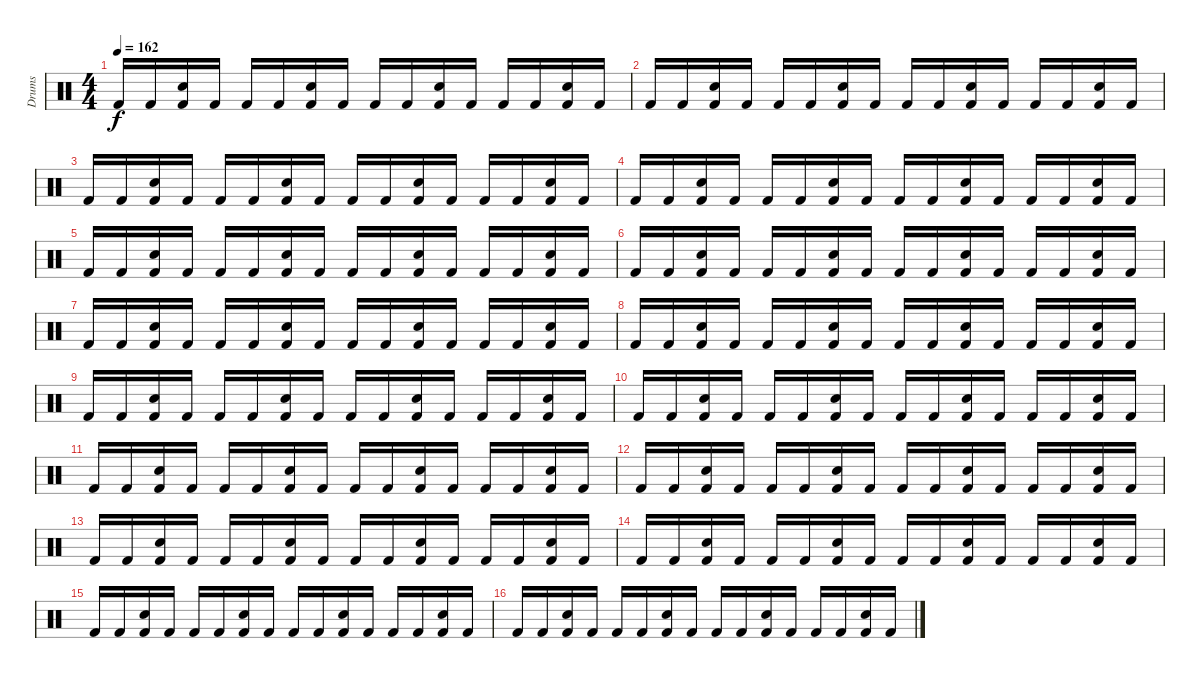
\track ("Drums" "Drums") {instrument percussion}
\staff {score}
\articulation defaults
\ts (4 4)
\tempo 162
\clef neutral
\ks c "Kick (hit) 2".16{dy f} "Kick (hit) 2".16
("Electric Snare (hit)" "Kick (hit) 2").16 "Kick (hit) 2".16 "Kick (hit) 2".16 "Kick (hit) 2".16 ("Electric Snare (hit)" "Kick (hit) 2").16 "Kick (hit) 2".16 "Kick (hit) 2".16 "Kick (hit) 2".16 ("Electric Snare (hit)" "Kick (hit) 2").16 "Kick (hit) 2".16 "Kick (hit) 2".16 "Kick (hit) 2".16 ("Electric Snare (hit)" "Kick (hit) 2").16 "Kick (hit) 2".16 |
"Kick (hit) 2".16 "Kick (hit) 2".16 ("Electric Snare (hit)" "Kick (hit) 2").16 "Kick (hit) 2".16 "Kick (hit) 2".16 "Kick (hit) 2".16 ("Electric Snare (hit)" "Kick (hit) 2").16 "Kick (hit) 2".16 "Kick (hit) 2".16 "Kick (hit) 2".16 ("Electric Snare (hit)" "Kick (hit) 2").16 "Kick (hit) 2".16 "Kick (hit) 2".16 "Kick (hit) 2".16 ("Electric Snare (hit)" "Kick (hit) 2").16 "Kick (hit) 2".16 |
"Kick (hit) 2".16 "Kick (hit) 2".16 ("Electric Snare (hit)" "Kick (hit) 2").16 "Kick (hit) 2".16 "Kick (hit) 2".16 "Kick (hit) 2".16 ("Electric Snare (hit)" "Kick (hit) 2").16 "Kick (hit) 2".16 "Kick (hit) 2".16 "Kick (hit) 2".16 ("Electric Snare (hit)" "Kick (hit) 2").16 "Kick (hit) 2".16 "Kick (hit) 2".16 "Kick (hit) 2".16 ("Electric Snare (hit)" "Kick (hit) 2").16 "Kick (hit) 2".16 |
"Kick (hit) 2".16 "Kick (hit) 2".16 ("Electric Snare (hit)" "Kick (hit) 2").16 "Kick (hit) 2".16 "Kick (hit) 2".16 "Kick (hit) 2".16 ("Electric Snare (hit)" "Kick (hit) 2").16 "Kick (hit) 2".16 "Kick (hit) 2".16 "Kick (hit) 2".16 ("Electric Snare (hit)" "Kick (hit) 2").16 "Kick (hit) 2".16 "Kick (hit) 2".16 "Kick (hit) 2".16 ("Electric Snare (hit)" "Kick (hit) 2").16 "Kick (hit) 2".16 |
"Kick (hit) 2".16 "Kick (hit) 2".16 ("Electric Snare (hit)" "Kick (hit) 2").16 "Kick (hit) 2".16 "Kick (hit) 2".16 "Kick (hit) 2".16 ("Electric Snare (hit)" "Kick (hit) 2").16 "Kick (hit) 2".16 "Kick (hit) 2".16 "Kick (hit) 2".16 ("Electric Snare (hit)" "Kick (hit) 2").16 "Kick (hit) 2".16 "Kick (hit) 2".16 "Kick (hit) 2".16 ("Electric Snare (hit)" "Kick (hit) 2").16 "Kick (hit) 2".16 |
"Kick (hit) 2".16 "Kick (hit) 2".16 ("Electric Snare (hit)" "Kick (hit) 2").16 "Kick (hit) 2".16 "Kick (hit) 2".16 "Kick (hit) 2".16 ("Electric Snare (hit)" "Kick (hit) 2").16 "Kick (hit) 2".16 "Kick (hit) 2".16 "Kick (hit) 2".16 ("Electric Snare (hit)" "Kick (hit) 2").16 "Kick (hit) 2".16 "Kick (hit) 2".16 "Kick (hit) 2".16 ("Electric Snare (hit)" "Kick (hit) 2").16 "Kick (hit) 2".16 |
"Kick (hit) 2".16 "Kick (hit) 2".16 ("Electric Snare (hit)" "Kick (hit) 2").16 "Kick (hit) 2".16 "Kick (hit) 2".16 "Kick (hit) 2".16 ("Electric Snare (hit)" "Kick (hit) 2").16 "Kick (hit) 2".16 "Kick (hit) 2".16 "Kick (hit) 2".16 ("Electric Snare (hit)" "Kick (hit) 2").16 "Kick (hit) 2".16 "Kick (hit) 2".16 "Kick (hit) 2".16 ("Electric Snare (hit)" "Kick (hit) 2").16 "Kick (hit) 2".16 |
"Kick (hit) 2".16 "Kick (hit) 2".16 ("Electric Snare (hit)" "Kick (hit) 2").16 "Kick (hit) 2".16 "Kick (hit) 2".16 "Kick (hit) 2".16 ("Electric Snare (hit)" "Kick (hit) 2").16 "Kick (hit) 2".16 "Kick (hit) 2".16 "Kick (hit) 2".16 ("Electric Snare (hit)" "Kick (hit) 2").16 "Kick (hit) 2".16 "Kick (hit) 2".16 "Kick (hit) 2".16 ("Electric Snare (hit)" "Kick (hit) 2").16 "Kick (hit) 2".16 |
"Kick (hit) 2".16 "Kick (hit) 2".16 ("Electric Snare (hit)" "Kick (hit) 2").16 "Kick (hit) 2".16 "Kick (hit) 2".16 "Kick (hit) 2".16 ("Electric Snare (hit)" "Kick (hit) 2").16 "Kick (hit) 2".16 "Kick (hit) 2".16 "Kick (hit) 2".16 ("Electric Snare (hit)" "Kick (hit) 2").16 "Kick (hit) 2".16 "Kick (hit) 2".16 "Kick (hit) 2".16 ("Electric Snare (hit)" "Kick (hit) 2").16 "Kick (hit) 2".16 |
"Kick (hit) 2".16 "Kick (hit) 2".16 ("Electric Snare (hit)" "Kick (hit) 2").16 "Kick (hit) 2".16 "Kick (hit) 2".16 "Kick (hit) 2".16 ("Electric Snare (hit)" "Kick (hit) 2").16 "Kick (hit) 2".16 "Kick (hit) 2".16 "Kick (hit) 2".16 ("Electric Snare (hit)" "Kick (hit) 2").16 "Kick (hit) 2".16 "Kick (hit) 2".16 "Kick (hit) 2".16 ("Electric Snare (hit)" "Kick (hit) 2").16 "Kick (hit) 2".16 |
"Kick (hit) 2".16 "Kick (hit) 2".16 ("Electric Snare (hit)" "Kick (hit) 2").16 "Kick (hit) 2".16 "Kick (hit) 2".16 "Kick (hit) 2".16 ("Electric Snare (hit)" "Kick (hit) 2").16 "Kick (hit) 2".16 "Kick (hit) 2".16 "Kick (hit) 2".16 ("Electric Snare (hit)" "Kick (hit) 2").16 "Kick (hit) 2".16 "Kick (hit) 2".16 "Kick (hit) 2".16 ("Electric Snare (hit)" "Kick (hit) 2").16 "Kick (hit) 2".16 |
"Kick (hit) 2".16 "Kick (hit) 2".16 ("Electric Snare (hit)" "Kick (hit) 2").16 "Kick (hit) 2".16 "Kick (hit) 2".16 "Kick (hit) 2".16 ("Electric Snare (hit)" "Kick (hit) 2").16 "Kick (hit) 2".16 "Kick (hit) 2".16 "Kick (hit) 2".16 ("Electric Snare (hit)" "Kick (hit) 2").16 "Kick (hit) 2".16 "Kick (hit) 2".16 "Kick (hit) 2".16 ("Electric Snare (hit)" "Kick (hit) 2").16 "Kick (hit) 2".16 |
"Kick (hit) 2".16 "Kick (hit) 2".16 ("Electric Snare (hit)" "Kick (hit) 2").16 "Kick (hit) 2".16 "Kick (hit) 2".16 "Kick (hit) 2".16 ("Electric Snare (hit)" "Kick (hit) 2").16 "Kick (hit) 2".16 "Kick (hit) 2".16 "Kick (hit) 2".16 ("Electric Snare (hit)" "Kick (hit) 2").16 "Kick (hit) 2".16 "Kick (hit) 2".16 "Kick (hit) 2".16 ("Electric Snare (hit)" "Kick (hit) 2").16 "Kick (hit) 2".16 |
"Kick (hit) 2".16 "Kick (hit) 2".16 ("Electric Snare (hit)" "Kick (hit) 2").16 "Kick (hit) 2".16 "Kick (hit) 2".16 "Kick (hit) 2".16 ("Electric Snare (hit)" "Kick (hit) 2").16 "Kick (hit) 2".16 "Kick (hit) 2".16 "Kick (hit) 2".16 ("Electric Snare (hit)" "Kick (hit) 2").16 "Kick (hit) 2".16 "Kick (hit) 2".16 "Kick (hit) 2".16 ("Electric Snare (hit)" "Kick (hit) 2").16 "Kick (hit) 2".16 |
"Kick (hit) 2".16 "Kick (hit) 2".16 ("Electric Snare (hit)" "Kick (hit) 2").16 "Kick (hit) 2".16 "Kick (hit) 2".16 "Kick (hit) 2".16 ("Electric Snare (hit)" "Kick (hit) 2").16 "Kick (hit) 2".16 "Kick (hit) 2".16 "Kick (hit) 2".16 ("Electric Snare (hit)" "Kick (hit) 2").16 "Kick (hit) 2".16 "Kick (hit) 2".16 "Kick (hit) 2".16 ("Electric Snare (hit)" "Kick (hit) 2").16 "Kick (hit) 2".16 |
"Kick (hit) 2".16 "Kick (hit) 2".16 ("Electric Snare (hit)" "Kick (hit) 2").16 "Kick (hit) 2".16 "Kick (hit) 2".16 "Kick (hit) 2".16 ("Electric Snare (hit)" "Kick (hit) 2").16 "Kick (hit) 2".16 "Kick (hit) 2".16 "Kick (hit) 2".16 ("Electric Snare (hit)" "Kick (hit) 2").16 "Kick (hit) 2".16 "Kick (hit) 2".16 "Kick (hit) 2".16 ("Electric Snare (hit)" "Kick (hit) 2").16 "Kick (hit) 2".16
